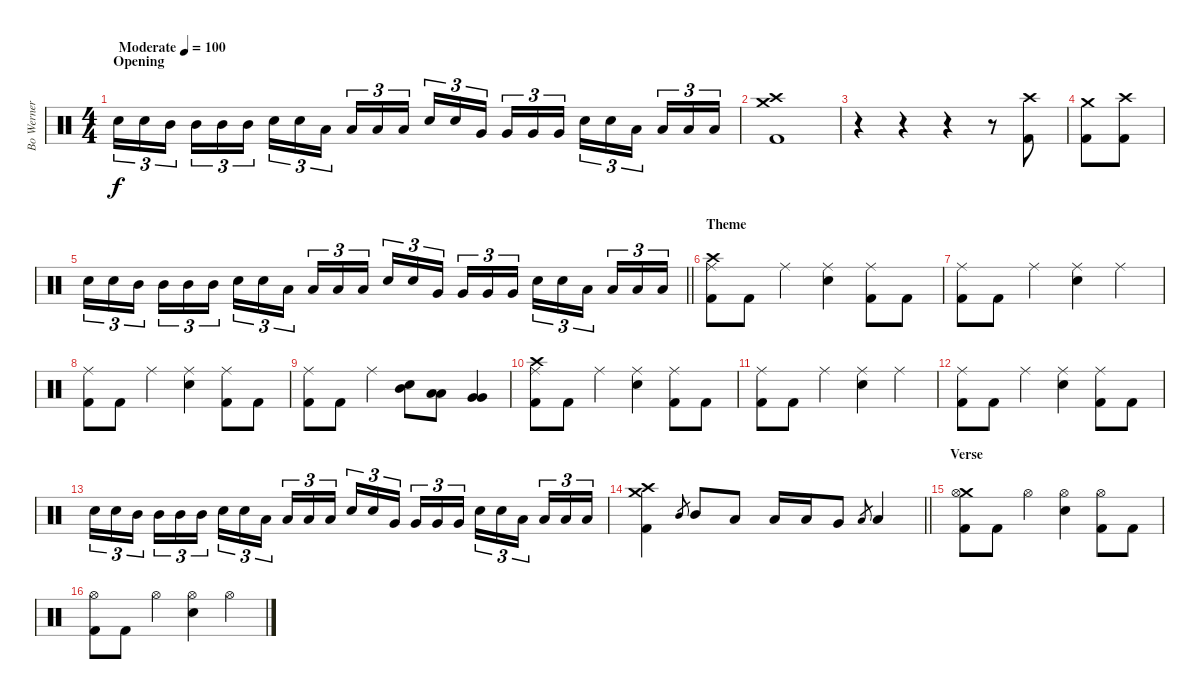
\track ("Bo Werner" "Bo Werner") {instrument percussion}
\staff {score}
\articulation defaults
\ts (4 4)
\section ("" "Opening")
\tempo (100 "Moderate")
\clef neutral
\ks c "Snare (hit) 2".16{tu (3 2) dy f} "Snare (hit) 2".16{tu (3 2)} "Mid Tom (hit)".16{tu (3 2) beam splitsecondary} "Mid Tom (hit)".16{tu (3 2)} "Mid Tom (hit)".16{tu (3 2)} "Mid Tom (hit)".16{tu (3 2)} "Snare (hit) 2".16{tu (3 2)} "Snare (hit) 2".16{tu (3 2)} "Low Tom (hit)".16{tu (3 2) beam splitsecondary} "Low Tom (hit)".16{tu (3 2)} "Low Tom (hit)".16{tu (3 2)} "Low Tom (hit)".16{tu (3 2)} "Snare (hit) 2".16{tu (3 2)} "Snare (hit) 2".16{tu (3 2)} "Very Low Tom (hit)".16{tu (3 2) beam splitsecondary} "Very Low Tom (hit)".16{tu (3 2)} "Very Low Tom (hit)".16{tu (3 2)} "Very Low Tom (hit)".16{tu (3 2)} "Snare (hit) 2".16{tu (3 2)} "Snare (hit) 2".16{tu (3 2)} "Low Floor Tom (hit)".16{tu (3 2) beam splitsecondary} "Low Floor Tom (hit)".16{tu (3 2)} "Low Floor Tom (hit)".16{tu (3 2)} "Low Floor Tom (hit)".16{tu (3 2)}
|
("Crash medium (hit)" "Crash high (hit)" "Kick (hit) 2").1 |
r.4 r.4 r.4 r.8 ("Crash high (hit)" "Kick (hit) 2").8 |
("Crash medium (hit)" "Kick (hit) 2").8 ("Crash high (hit)" "Kick (hit) 2").8 |
\barLineRight lightlight "Snare (hit) 2".16{tu (3 2)} "Snare (hit) 2".16{tu (3 2)} "Mid Tom (hit)".16{tu (3 2) beam splitsecondary} "Mid Tom (hit)".16{tu (3 2)} "Mid Tom (hit)".16{tu (3 2)} "Mid Tom (hit)".16{tu (3 2)} "Snare (hit) 2".16{tu (3 2)} "Snare (hit) 2".16{tu (3 2)} "Low Tom (hit)".16{tu (3 2) beam splitsecondary} "Low Tom (hit)".16{tu (3 2)} "Low Tom (hit)".16{tu (3 2)} "Low Tom (hit)".16{tu (3 2)} "Snare (hit) 2".16{tu (3 2)} "Snare (hit) 2".16{tu (3 2)} "Very Low Tom (hit)".16{tu (3 2) beam splitsecondary} "Very Low Tom (hit)".16{tu (3 2)} "Very Low Tom (hit)".16{tu (3 2)} "Very Low Tom (hit)".16{tu (3 2)} "Snare (hit) 2".16{tu (3 2)} "Snare (hit) 2".16{tu (3 2)} "Low Floor Tom (hit)".16{tu (3 2) beam splitsecondary} "Low Floor Tom (hit)".16{tu (3 2)} "Low Floor Tom (hit)".16{tu (3 2)} "Low Floor Tom (hit)".16{tu (3 2)}
|
\section ("" "Theme")
("Crash high (hit)" "Ride (middle)" "Kick (hit) 2").8 "Kick (hit) 2".8 "Ride (middle)".4 ("Ride (middle)" "Snare (hit) 2").4 ("Ride (middle)" "Kick (hit) 2").8 "Kick (hit) 2".8 |
("Ride (middle)" "Kick (hit) 2").8 "Kick (hit) 2".8 "Ride (middle)".4 ("Ride (middle)" "Snare (hit) 2").4 "Ride (middle)".4 |
("Ride (middle)" "Kick (hit) 2").8 "Kick (hit) 2".8 "Ride (middle)".4 ("Ride (middle)" "Snare (hit) 2").4 ("Ride (middle)" "Kick (hit) 2").8 "Kick (hit) 2".8 |
("Ride (middle)" "Kick (hit) 2").8 "Kick (hit) 2".8 "Ride (middle)".4 ("Snare (hit) 2" "Mid Tom (hit)").8 ("Low Tom (hit)" "Low Tom (hit)").8 ("Very Low Tom (hit)" "Very Low Tom (hit)").4 |
("Crash high (hit)" "Ride (middle)" "Kick (hit) 2").8 "Kick (hit) 2".8 "Ride (middle)".4 ("Ride (middle)" "Snare (hit) 2").4 ("Ride (middle)" "Kick (hit) 2").8 "Kick (hit) 2".8 |
("Ride (middle)" "Kick (hit) 2").8 "Kick (hit) 2".8 "Ride (middle)".4 ("Ride (middle)" "Snare (hit) 2").4 "Ride (middle)".4 |
("Ride (middle)" "Kick (hit) 2").8 "Kick (hit) 2".8 "Ride (middle)".4 ("Ride (middle)" "Snare (hit) 2").4 ("Ride (middle)" "Kick (hit) 2").8 "Kick (hit) 2".8 |
"Snare (hit) 2".16{tu (3 2)} "Snare (hit) 2".16{tu (3 2)} "Mid Tom (hit)".16{tu (3 2) beam splitsecondary} "Mid Tom (hit)".16{tu (3 2)} "Mid Tom (hit)".16{tu (3 2)} "Mid Tom (hit)".16{tu (3 2)} "Snare (hit) 2".16{tu (3 2)} "Snare (hit) 2".16{tu (3 2)} "Low Tom (hit)".16{tu (3 2) beam splitsecondary} "Low Tom (hit)".16{tu (3 2)} "Low Tom (hit)".16{tu (3 2)} "Low Tom (hit)".16{tu (3 2)} "Snare (hit) 2".16{tu (3 2)} "Snare (hit) 2".16{tu (3 2)} "Very Low Tom (hit)".16{tu (3 2) beam splitsecondary} "Very Low Tom (hit)".16{tu (3 2)} "Very Low Tom (hit)".16{tu (3 2)} "Very Low Tom (hit)".16{tu (3 2)} "Snare (hit) 2".16{tu (3 2)} "Snare (hit) 2".16{tu (3 2)} "Low Floor Tom (hit)".16{tu (3 2) beam splitsecondary} "Low Floor Tom (hit)".16{tu (3 2)} "Low Floor Tom (hit)".16{tu (3 2)} "Low Floor Tom (hit)".16{tu (3 2)} |
\barLineRight lightlight
("Crash medium (hit)" "Crash high (hit)" "Kick (hit) 2").4 "Mid Tom (hit)".8{gr} "Mid Tom (hit)".8 "Low Tom (hit)".8 "Low Tom (hit)".16 "Low Tom (hit)".16 "Very Low Tom (hit)".8 "Low Floor Tom (hit)".8{gr} "Low Floor Tom (hit)".4 |
\section ("" "Verse")
("Crash medium (hit)" "Hi-Hat (open)" "Kick (hit) 2").8 "Kick (hit) 2".8 "Hi-Hat (open)".4 ("Hi-Hat (open)" "Snare (hit) 2").4 ("Hi-Hat (open)" "Kick (hit) 2").8 "Kick (hit) 2".8 |
("Hi-Hat (open)" "Kick (hit) 2").8 "Kick (hit) 2".8 "Hi-Hat (open)".4 ("Hi-Hat (open)" "Snare (hit) 2").4 "Hi-Hat (open)".4
